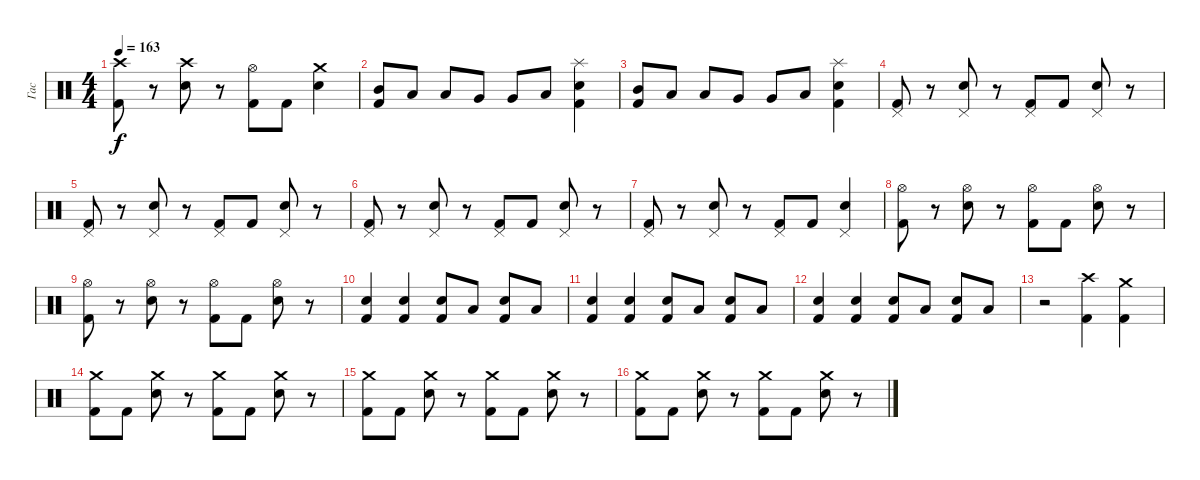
\track ("Гас" "Гас") {instrument percussion}
\staff {score}
\articulation defaults
\ts (4 4)
\tempo 163
\clef neutral
\ks c
("Crash high (hit)" "Kick (hit) 2").8{dy f} r.8 ("Crash high (hit)" "Electric Snare (hit)").8 r.8 ("Hi-Hat (open)" "Kick (hit) 2").8 "Kick (hit) 2".8 ("Crash medium (hit)" "Electric Snare (hit)").4 |
("Kick (hit) 2" "Mid Tom (hit)").8 "Low Tom (hit)".8 "Low Tom (hit)".8 "Very Low Tom (hit)".8 "Very Low Tom (hit)".8 "Low Floor Tom (hit)".8 ("Splash (hit)" "Electric Snare (hit)" "Kick (hit) 2").4 |
("Kick (hit) 2" "Mid Tom (hit)").8 "Low Tom (hit)".8 "Low Tom (hit)".8 "Very Low Tom (hit)".8 "Very Low Tom (hit)".8 "Low Floor Tom (hit)".8 ("Splash (hit)" "Electric Snare (hit)" "Kick (hit) 2").4 |
("Pedal Hi-Hat (hit)" "Kick (hit) 2").8 r.8 ("Pedal Hi-Hat (hit)" "Electric Snare (hit)").8 r.8 ("Pedal Hi-Hat (hit)" "Kick (hit) 2").8 "Kick (hit) 2".8 ("Pedal Hi-Hat (hit)" "Electric Snare (hit)").8 r.8 |
("Pedal Hi-Hat (hit)" "Kick (hit) 2").8 r.8 ("Pedal Hi-Hat (hit)" "Electric Snare (hit)").8 r.8 ("Pedal Hi-Hat (hit)" "Kick (hit) 2").8 "Kick (hit) 2".8 ("Pedal Hi-Hat (hit)" "Electric Snare (hit)").8 r.8 |
("Pedal Hi-Hat (hit)" "Kick (hit) 2").8 r.8 ("Pedal Hi-Hat (hit)" "Electric Snare (hit)").8 r.8 ("Pedal Hi-Hat (hit)" "Kick (hit) 2").8 "Kick (hit) 2".8 ("Pedal Hi-Hat (hit)" "Electric Snare (hit)").8 r.8 |
("Pedal Hi-Hat (hit)" "Kick (hit) 2").8 r.8 ("Pedal Hi-Hat (hit)" "Electric Snare (hit)").8 r.8 ("Pedal Hi-Hat (hit)" "Kick (hit) 2").8 "Kick (hit) 2".8 ("Pedal Hi-Hat (hit)" "Electric Snare (hit)").4 |
("Hi-Hat (open)" "Kick (hit) 2").8 r.8 ("Hi-Hat (open)" "Electric Snare (hit)").8 r.8 ("Hi-Hat (open)" "Kick (hit) 2").8 "Kick (hit) 2".8 ("Hi-Hat (open)" "Electric Snare (hit)").8 r.8 |
("Hi-Hat (open)" "Kick (hit) 2").8 r.8 ("Hi-Hat (open)" "Electric Snare (hit)").8 r.8 ("Hi-Hat (open)" "Kick (hit) 2").8 "Kick (hit) 2".8 ("Hi-Hat (open)" "Electric Snare (hit)").8 r.8 |
("Snare (hit) 2" "Kick (hit) 2").4 ("Snare (hit) 2" "Kick (hit) 2").4 ("Snare (hit) 2" "Kick (hit) 2").8 "Low Tom (hit)".8 ("Snare (hit) 2" "Kick (hit) 2").8 "Low Tom (hit)".8 |
("Snare (hit) 2" "Kick (hit) 2").4 ("Snare (hit) 2" "Kick (hit) 2").4 ("Snare (hit) 2" "Kick (hit) 2").8 "Low Tom (hit)".8 ("Snare (hit) 2" "Kick (hit) 2").8 "Low Tom (hit)".8 |
("Snare (hit) 2" "Kick (hit) 2").4 ("Snare (hit) 2" "Kick (hit) 2").4 ("Snare (hit) 2" "Kick (hit) 2").8 "Low Tom (hit)".8 ("Snare (hit) 2" "Kick (hit) 2").8 "Low Tom (hit)".8 |
r.2 ("Crash high (hit)" "Kick (hit) 2").4 ("Crash medium (hit)" "Kick (hit) 2").4 |
("Crash medium (hit)" "Kick (hit) 2").8 "Kick (hit) 2".8 ("Crash medium (hit)" "Electric Snare (hit)").8 r.8 ("Crash medium (hit)" "Kick (hit) 2").8 "Kick (hit) 2".8 ("Crash medium (hit)" "Electric Snare (hit)").8 r.8 |
("Crash medium (hit)" "Kick (hit) 2").8 "Kick (hit) 2".8 ("Crash medium (hit)" "Electric Snare (hit)").8 r.8 ("Crash medium (hit)" "Kick (hit) 2").8 "Kick (hit) 2".8 ("Crash medium (hit)" "Electric Snare (hit)").8 r.8 |
("Crash medium (hit)" "Kick (hit) 2").8 "Kick (hit) 2".8 ("Crash medium (hit)" "Electric Snare (hit)").8 r.8 ("Crash medium (hit)" "Kick (hit) 2").8 "Kick (hit) 2".8 ("Crash medium (hit)" "Electric Snare (hit)").8 r.8
